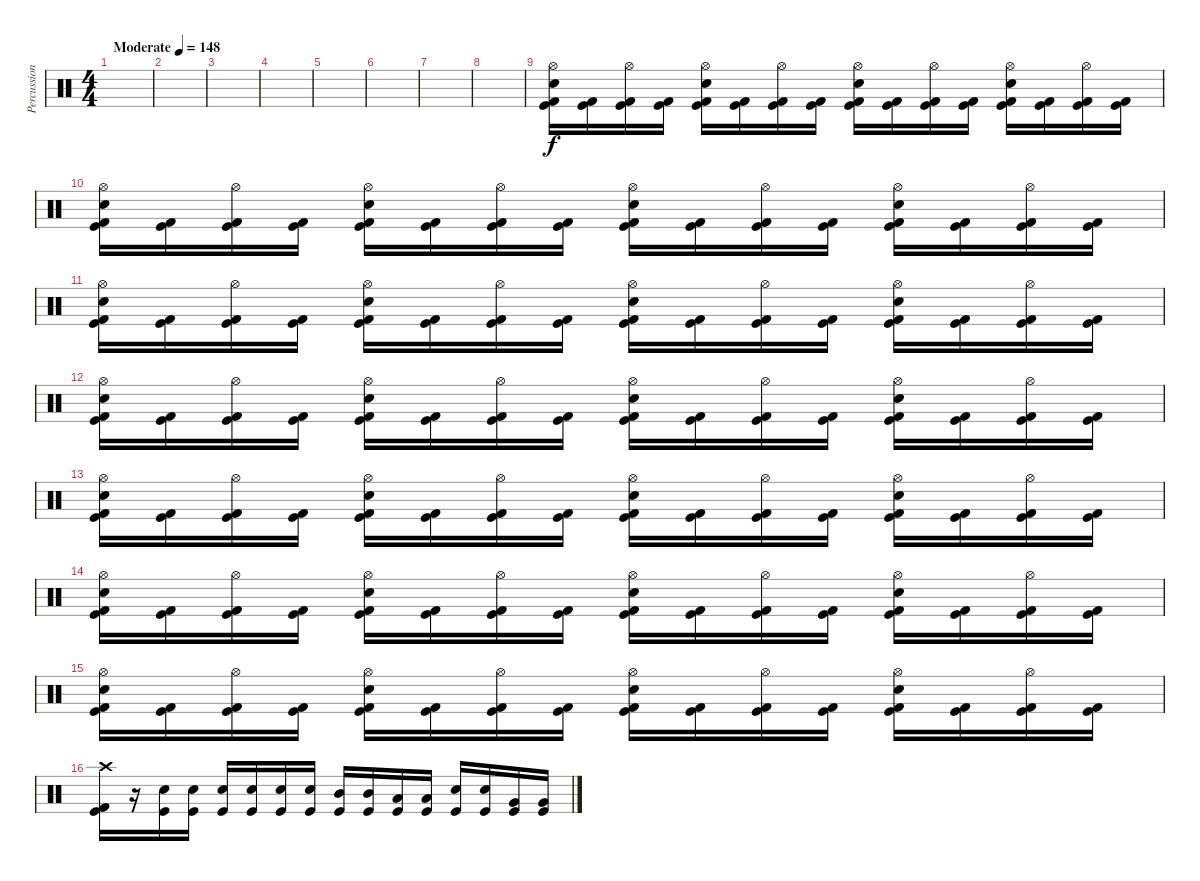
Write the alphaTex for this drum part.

\track ("Percussion" "Percussion") {instrument percussion}
\staff {score}
\articulation defaults
\ts (4 4)
\tempo (148 "Moderate")
\clef neutral
\ks c
|
|
|
|
|
|
|
|
("Electric Snare (hit)" "Hi-Hat (open)" "Kick (hit) 2" "Kick (hit)").16 ("Kick (hit) 2" "Kick (hit)").16 ("Hi-Hat (open)" "Kick (hit) 2" "Kick (hit)").16 ("Kick (hit) 2" "Kick (hit)").16 ("Electric Snare (hit)" "Hi-Hat (open)" "Kick (hit) 2" "Kick (hit)").16 ("Kick (hit) 2" "Kick (hit)").16 ("Hi-Hat (open)" "Kick (hit) 2" "Kick (hit)").16 ("Kick (hit) 2" "Kick (hit)").16 ("Electric Snare (hit)" "Hi-Hat (open)" "Kick (hit) 2" "Kick (hit)").16 ("Kick (hit) 2" "Kick (hit)").16 ("Hi-Hat (open)" "Kick (hit) 2" "Kick (hit)").16 ("Kick (hit) 2" "Kick (hit)").16 ("Electric Snare (hit)" "Hi-Hat (open)" "Kick (hit) 2" "Kick (hit)").16 ("Kick (hit) 2" "Kick (hit)").16 ("Hi-Hat (open)" "Kick (hit) 2" "Kick (hit)").16 ("Kick (hit) 2" "Kick (hit)").16 |
("Electric Snare (hit)" "Hi-Hat (open)" "Kick (hit) 2" "Kick (hit)").16 ("Kick (hit) 2" "Kick (hit)").16 ("Hi-Hat (open)" "Kick (hit) 2" "Kick (hit)").16 ("Kick (hit) 2" "Kick (hit)").16 ("Electric Snare (hit)" "Hi-Hat (open)" "Kick (hit) 2" "Kick (hit)").16 ("Kick (hit) 2" "Kick (hit)").16 ("Hi-Hat (open)" "Kick (hit) 2" "Kick (hit)").16 ("Kick (hit) 2" "Kick (hit)").16 ("Electric Snare (hit)" "Hi-Hat (open)" "Kick (hit) 2" "Kick (hit)").16 ("Kick (hit) 2" "Kick (hit)").16 ("Hi-Hat (open)" "Kick (hit) 2" "Kick (hit)").16 ("Kick (hit) 2" "Kick (hit)").16 ("Electric Snare (hit)" "Hi-Hat (open)" "Kick (hit) 2" "Kick (hit)").16 ("Kick (hit) 2" "Kick (hit)").16 ("Hi-Hat (open)" "Kick (hit) 2" "Kick (hit)").16 ("Kick (hit) 2" "Kick (hit)").16 |
("Electric Snare (hit)" "Hi-Hat (open)" "Kick (hit) 2" "Kick (hit)").16 ("Kick (hit) 2" "Kick (hit)").16 ("Hi-Hat (open)" "Kick (hit) 2" "Kick (hit)").16 ("Kick (hit) 2" "Kick (hit)").16 ("Electric Snare (hit)" "Hi-Hat (open)" "Kick (hit) 2" "Kick (hit)").16 ("Kick (hit) 2" "Kick (hit)").16 ("Hi-Hat (open)" "Kick (hit) 2" "Kick (hit)").16 ("Kick (hit) 2" "Kick (hit)").16 ("Electric Snare (hit)" "Hi-Hat (open)" "Kick (hit) 2" "Kick (hit)").16 ("Kick (hit) 2" "Kick (hit)").16 ("Hi-Hat (open)" "Kick (hit) 2" "Kick (hit)").16 ("Kick (hit) 2" "Kick (hit)").16 ("Electric Snare (hit)" "Hi-Hat (open)" "Kick (hit) 2" "Kick (hit)").16 ("Kick (hit) 2" "Kick (hit)").16 ("Hi-Hat (open)" "Kick (hit) 2" "Kick (hit)").16 ("Kick (hit) 2" "Kick (hit)").16 |
("Electric Snare (hit)" "Hi-Hat (open)" "Kick (hit) 2" "Kick (hit)").16 ("Kick (hit) 2" "Kick (hit)").16 ("Hi-Hat (open)" "Kick (hit) 2" "Kick (hit)").16 ("Kick (hit) 2" "Kick (hit)").16 ("Electric Snare (hit)" "Hi-Hat (open)" "Kick (hit) 2" "Kick (hit)").16 ("Kick (hit) 2" "Kick (hit)").16 ("Hi-Hat (open)" "Kick (hit) 2" "Kick (hit)").16 ("Kick (hit) 2" "Kick (hit)").16 ("Electric Snare (hit)" "Hi-Hat (open)" "Kick (hit) 2" "Kick (hit)").16 ("Kick (hit) 2" "Kick (hit)").16 ("Hi-Hat (open)" "Kick (hit) 2" "Kick (hit)").16 ("Kick (hit) 2" "Kick (hit)").16 ("Electric Snare (hit)" "Hi-Hat (open)" "Kick (hit) 2" "Kick (hit)").16 ("Kick (hit) 2" "Kick (hit)").16 ("Hi-Hat (open)" "Kick (hit) 2" "Kick (hit)").16 ("Kick (hit) 2" "Kick (hit)").16 |
("Electric Snare (hit)" "Hi-Hat (open)" "Kick (hit) 2" "Kick (hit)").16 ("Kick (hit) 2" "Kick (hit)").16 ("Hi-Hat (open)" "Kick (hit) 2" "Kick (hit)").16 ("Kick (hit) 2" "Kick (hit)").16 ("Electric Snare (hit)" "Hi-Hat (open)" "Kick (hit) 2" "Kick (hit)").16 ("Kick (hit) 2" "Kick (hit)").16 ("Hi-Hat (open)" "Kick (hit) 2" "Kick (hit)").16 ("Kick (hit) 2" "Kick (hit)").16 ("Electric Snare (hit)" "Hi-Hat (open)" "Kick (hit) 2" "Kick (hit)").16 ("Kick (hit) 2" "Kick (hit)").16 ("Hi-Hat (open)" "Kick (hit) 2" "Kick (hit)").16 ("Kick (hit) 2" "Kick (hit)").16 ("Electric Snare (hit)" "Hi-Hat (open)" "Kick (hit) 2" "Kick (hit)").16 ("Kick (hit) 2" "Kick (hit)").16 ("Hi-Hat (open)" "Kick (hit) 2" "Kick (hit)").16 ("Kick (hit) 2" "Kick (hit)").16 |
("Electric Snare (hit)" "Hi-Hat (open)" "Kick (hit) 2" "Kick (hit)").16 ("Kick (hit) 2" "Kick (hit)").16 ("Hi-Hat (open)" "Kick (hit) 2" "Kick (hit)").16 ("Kick (hit) 2" "Kick (hit)").16 ("Electric Snare (hit)" "Hi-Hat (open)" "Kick (hit) 2" "Kick (hit)").16 ("Kick (hit) 2" "Kick (hit)").16 ("Hi-Hat (open)" "Kick (hit) 2" "Kick (hit)").16 ("Kick (hit) 2" "Kick (hit)").16 ("Electric Snare (hit)" "Hi-Hat (open)" "Kick (hit) 2" "Kick (hit)").16 ("Kick (hit) 2" "Kick (hit)").16 ("Hi-Hat (open)" "Kick (hit) 2" "Kick (hit)").16 ("Kick (hit) 2" "Kick (hit)").16 ("Electric Snare (hit)" "Hi-Hat (open)" "Kick (hit) 2" "Kick (hit)").16 ("Kick (hit) 2" "Kick (hit)").16 ("Hi-Hat (open)" "Kick (hit) 2" "Kick (hit)").16 ("Kick (hit) 2" "Kick (hit)").16 |
("Electric Snare (hit)" "Hi-Hat (open)" "Kick (hit) 2" "Kick (hit)").16 ("Kick (hit) 2" "Kick (hit)").16 ("Hi-Hat (open)" "Kick (hit) 2" "Kick (hit)").16 ("Kick (hit) 2" "Kick (hit)").16 ("Electric Snare (hit)" "Hi-Hat (open)" "Kick (hit) 2" "Kick (hit)").16 ("Kick (hit) 2" "Kick (hit)").16 ("Hi-Hat (open)" "Kick (hit) 2" "Kick (hit)").16 ("Kick (hit) 2" "Kick (hit)").16 ("Electric Snare (hit)" "Hi-Hat (open)" "Kick (hit) 2" "Kick (hit)").16 ("Kick (hit) 2" "Kick (hit)").16 ("Hi-Hat (open)" "Kick (hit) 2" "Kick (hit)").16 ("Kick (hit) 2" "Kick (hit)").16 ("Electric Snare (hit)" "Hi-Hat (open)" "Kick (hit) 2" "Kick (hit)").16 ("Kick (hit) 2" "Kick (hit)").16 ("Hi-Hat (open)" "Kick (hit) 2" "Kick (hit)").16 ("Kick (hit) 2" "Kick (hit)").16 |
("Crash high (hit)" "Kick (hit) 2" "Kick (hit)").16 r.16 ("Electric Snare (hit)" "Kick (hit)").16 ("Electric Snare (hit)" "Kick (hit)").16 ("Electric Snare (hit)" "Kick (hit)").16 ("Electric Snare (hit)" "Kick (hit)").16 ("Electric Snare (hit)" "Kick (hit)").16 ("Electric Snare (hit)" "Kick (hit)").16 ("Mid Tom (hit)" "Kick (hit)").16 ("Mid Tom (hit)" "Kick (hit)").16 ("Low Tom (hit)" "Kick (hit)").16 ("Low Tom (hit)" "Kick (hit)").16 ("Electric Snare (hit)" "Kick (hit)").16 ("Electric Snare (hit)" "Kick (hit)").16 ("Very Low Tom (hit)" "Kick (hit)").16 ("Very Low Tom (hit)" "Kick (hit)").16
